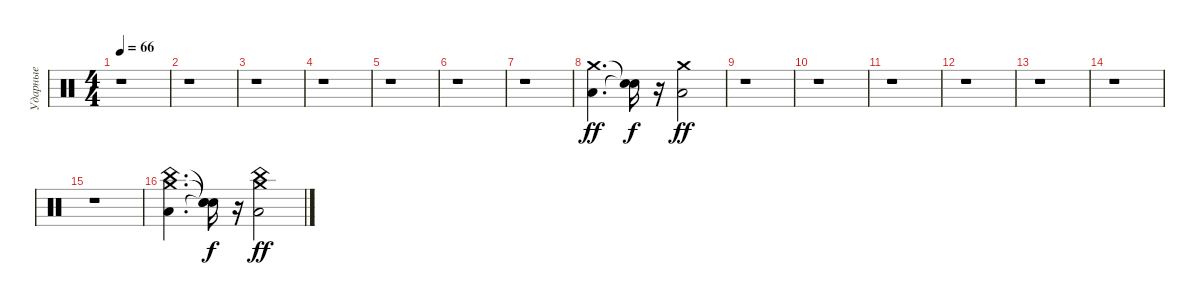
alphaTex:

\track ("Ударные" "Ударные") {instrument percussion}
\staff {score}
\articulation defaults
\ts (4 4)
\tempo 66
\clef neutral
\ks c
r.1{dy ff} |
r.1 |
r.1 |
r.1 |
r.1 |
r.1 |
r.1 |
("Crash medium (hit)" "Low Tom (hit)").4{d} ("Snare (hit)"{t} "Snare (hit)"{t}).16{dy f} r.16 ("Crash medium (hit)" "Low Tom (hit)").2{dy ff} |
r.1 |
r.1 |
r.1 |
r.1 |
r.1 |
r.1 |
r.1 |
("China (hit)" "Low Tom (hit)" "Crash medium (hit)").4{d} ("Snare (hit)"{t} "Snare (hit)"{t} "Snare (hit)"{t}).16{dy f} r.16 ("China (hit)" "Low Tom (hit)" "Crash medium (hit)").2{dy ff}
